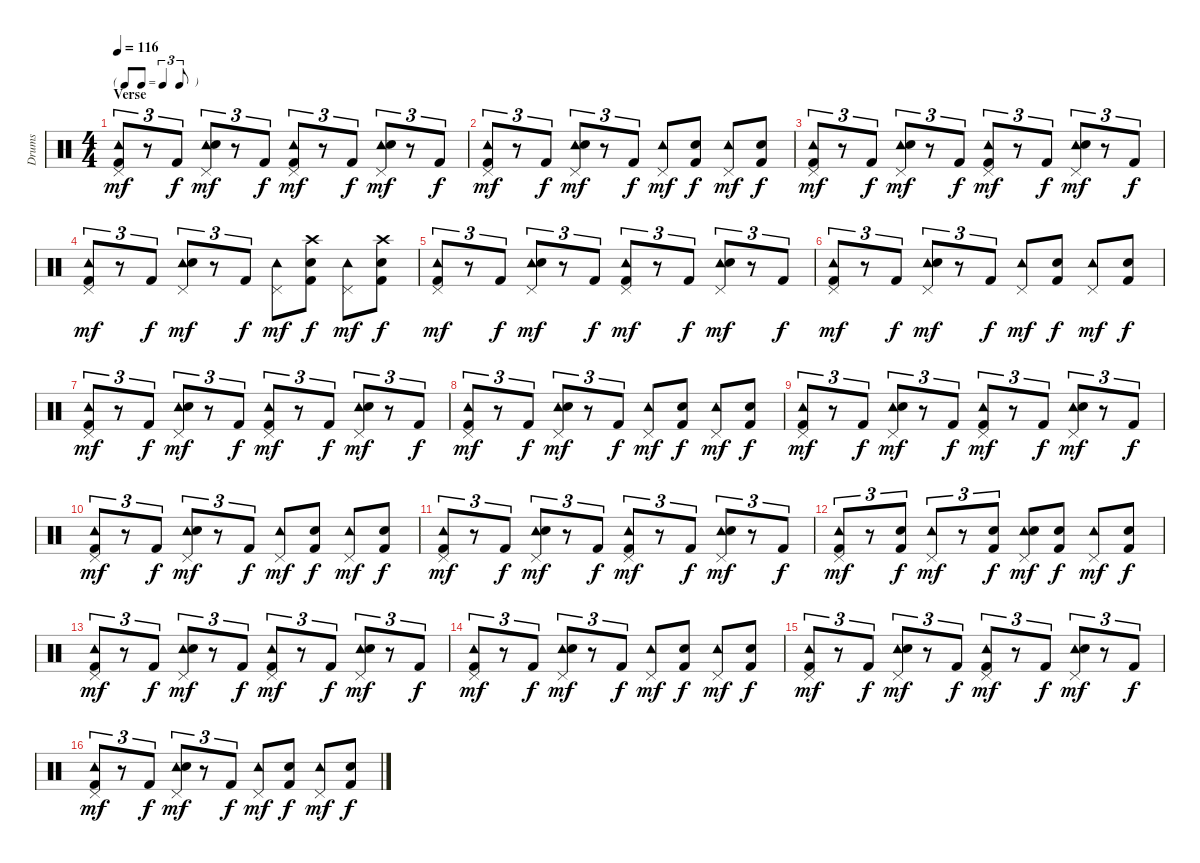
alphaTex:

\track ("Drums" "Drums") {instrument percussion}
\staff {score}
\articulation defaults
\ts (4 4)
\tf triplet8th
\section ("" "Verse")
\tempo 116
\clef neutral
\ks c
("Tambourine (hit)" "Pedal Hi-Hat (hit)" "Kick (hit) 2").8{tu (3 2) dy mf} r.8{tu (3 2)} "Kick (hit) 2".8{tu (3 2) dy f} ("Tambourine (hit)" "Pedal Hi-Hat (hit)" "Snare (hit) 2").8{tu (3 2) dy mf} r.8{tu (3 2)} "Kick (hit) 2".8{tu (3 2) dy f} ("Tambourine (hit)" "Pedal Hi-Hat (hit)" "Kick (hit) 2").8{tu (3 2) dy mf} r.8{tu (3 2)} "Kick (hit) 2".8{tu (3 2) dy f} ("Tambourine (hit)" "Pedal Hi-Hat (hit)" "Snare (hit) 2").8{tu (3 2) dy mf} r.8{tu (3 2)} "Kick (hit) 2".8{tu (3 2) dy f} |
("Tambourine (hit)" "Pedal Hi-Hat (hit)" "Kick (hit) 2").8{tu (3 2) dy mf} r.8{tu (3 2)} "Kick (hit) 2".8{tu (3 2) dy f} ("Tambourine (hit)" "Pedal Hi-Hat (hit)" "Snare (hit) 2").8{tu (3 2) dy mf} r.8{tu (3 2)} "Kick (hit) 2".8{tu (3 2) dy f} ("Tambourine (hit)" "Pedal Hi-Hat (hit)").8{dy mf} ("Snare (hit) 2" "Kick (hit) 2").8{dy f} ("Tambourine (hit)" "Pedal Hi-Hat (hit)").8{dy mf} ("Snare (hit) 2" "Kick (hit) 2").8{dy f} |
("Tambourine (hit)" "Pedal Hi-Hat (hit)" "Kick (hit) 2").8{tu (3 2) dy mf} r.8{tu (3 2)} "Kick (hit) 2".8{tu (3 2) dy f} ("Tambourine (hit)" "Pedal Hi-Hat (hit)" "Snare (hit) 2").8{tu (3 2) dy mf} r.8{tu (3 2)} "Kick (hit) 2".8{tu (3 2) dy f} ("Tambourine (hit)" "Pedal Hi-Hat (hit)" "Kick (hit) 2").8{tu (3 2) dy mf} r.8{tu (3 2)} "Kick (hit) 2".8{tu (3 2) dy f} ("Tambourine (hit)" "Pedal Hi-Hat (hit)" "Snare (hit) 2").8{tu (3 2) dy mf} r.8{tu (3 2)} "Kick (hit) 2".8{tu (3 2) dy f} |
("Tambourine (hit)" "Pedal Hi-Hat (hit)" "Kick (hit) 2").8{tu (3 2) dy mf} r.8{tu (3 2)} "Kick (hit) 2".8{tu (3 2) dy f} ("Tambourine (hit)" "Pedal Hi-Hat (hit)" "Snare (hit) 2").8{tu (3 2) dy mf} r.8{tu (3 2)} "Kick (hit) 2".8{tu (3 2) dy f} ("Tambourine (hit)" "Pedal Hi-Hat (hit)").8{dy mf} ("Crash high (hit)" "Snare (hit) 2" "Kick (hit) 2").8{dy f} ("Tambourine (hit)" "Pedal Hi-Hat (hit)").8{dy mf} ("Crash high (hit)" "Snare (hit) 2" "Kick (hit) 2").8{dy f} |
("Tambourine (hit)" "Pedal Hi-Hat (hit)" "Kick (hit) 2").8{tu (3 2) dy mf} r.8{tu (3 2)} "Kick (hit) 2".8{tu (3 2) dy f} ("Tambourine (hit)" "Pedal Hi-Hat (hit)" "Snare (hit) 2").8{tu (3 2) dy mf} r.8{tu (3 2)} "Kick (hit) 2".8{tu (3 2) dy f} ("Tambourine (hit)" "Pedal Hi-Hat (hit)" "Kick (hit) 2").8{tu (3 2) dy mf} r.8{tu (3 2)} "Kick (hit) 2".8{tu (3 2) dy f} ("Tambourine (hit)" "Pedal Hi-Hat (hit)" "Snare (hit) 2").8{tu (3 2) dy mf} r.8{tu (3 2)} "Kick (hit) 2".8{tu (3 2) dy f} |
("Tambourine (hit)" "Pedal Hi-Hat (hit)" "Kick (hit) 2").8{tu (3 2) dy mf} r.8{tu (3 2)} "Kick (hit) 2".8{tu (3 2) dy f} ("Tambourine (hit)" "Pedal Hi-Hat (hit)" "Snare (hit) 2").8{tu (3 2) dy mf} r.8{tu (3 2)} "Kick (hit) 2".8{tu (3 2) dy f} ("Tambourine (hit)" "Pedal Hi-Hat (hit)").8{dy mf} ("Snare (hit) 2" "Kick (hit) 2").8{dy f} ("Tambourine (hit)" "Pedal Hi-Hat (hit)").8{dy mf} ("Snare (hit) 2" "Kick (hit) 2").8{dy f} |
("Tambourine (hit)" "Pedal Hi-Hat (hit)" "Kick (hit) 2").8{tu (3 2) dy mf} r.8{tu (3 2)} "Kick (hit) 2".8{tu (3 2) dy f} ("Tambourine (hit)" "Pedal Hi-Hat (hit)" "Snare (hit) 2").8{tu (3 2) dy mf} r.8{tu (3 2)} "Kick (hit) 2".8{tu (3 2) dy f} ("Tambourine (hit)" "Pedal Hi-Hat (hit)" "Kick (hit) 2").8{tu (3 2) dy mf} r.8{tu (3 2)} "Kick (hit) 2".8{tu (3 2) dy f} ("Tambourine (hit)" "Pedal Hi-Hat (hit)" "Snare (hit) 2").8{tu (3 2) dy mf} r.8{tu (3 2)} "Kick (hit) 2".8{tu (3 2) dy f} |
("Tambourine (hit)" "Pedal Hi-Hat (hit)" "Kick (hit) 2").8{tu (3 2) dy mf} r.8{tu (3 2)} "Kick (hit) 2".8{tu (3 2) dy f} ("Tambourine (hit)" "Pedal Hi-Hat (hit)" "Snare (hit) 2").8{tu (3 2) dy mf} r.8{tu (3 2)} "Kick (hit) 2".8{tu (3 2) dy f} ("Tambourine (hit)" "Pedal Hi-Hat (hit)").8{dy mf} ("Snare (hit) 2" "Kick (hit) 2").8{dy f} ("Tambourine (hit)" "Pedal Hi-Hat (hit)").8{dy mf} ("Snare (hit) 2" "Kick (hit) 2").8{dy f} |
("Tambourine (hit)" "Pedal Hi-Hat (hit)" "Kick (hit) 2").8{tu (3 2) dy mf} r.8{tu (3 2)} "Kick (hit) 2".8{tu (3 2) dy f} ("Tambourine (hit)" "Pedal Hi-Hat (hit)" "Snare (hit) 2").8{tu (3 2) dy mf} r.8{tu (3 2)} "Kick (hit) 2".8{tu (3 2) dy f} ("Tambourine (hit)" "Pedal Hi-Hat (hit)" "Kick (hit) 2").8{tu (3 2) dy mf} r.8{tu (3 2)} "Kick (hit) 2".8{tu (3 2) dy f} ("Tambourine (hit)" "Pedal Hi-Hat (hit)" "Snare (hit) 2").8{tu (3 2) dy mf} r.8{tu (3 2)} "Kick (hit) 2".8{tu (3 2) dy f} |
("Tambourine (hit)" "Pedal Hi-Hat (hit)" "Kick (hit) 2").8{tu (3 2) dy mf} r.8{tu (3 2)} "Kick (hit) 2".8{tu (3 2) dy f} ("Tambourine (hit)" "Pedal Hi-Hat (hit)" "Snare (hit) 2").8{tu (3 2) dy mf} r.8{tu (3 2)} "Kick (hit) 2".8{tu (3 2) dy f} ("Tambourine (hit)" "Pedal Hi-Hat (hit)").8{dy mf} ("Snare (hit) 2" "Kick (hit) 2").8{dy f} ("Tambourine (hit)" "Pedal Hi-Hat (hit)").8{dy mf} ("Snare (hit) 2" "Kick (hit) 2").8{dy f} |
("Tambourine (hit)" "Pedal Hi-Hat (hit)" "Kick (hit) 2").8{tu (3 2) dy mf} r.8{tu (3 2)} "Kick (hit) 2".8{tu (3 2) dy f} ("Tambourine (hit)" "Pedal Hi-Hat (hit)" "Snare (hit) 2").8{tu (3 2) dy mf} r.8{tu (3 2)} "Kick (hit) 2".8{tu (3 2) dy f} ("Tambourine (hit)" "Pedal Hi-Hat (hit)" "Kick (hit) 2").8{tu (3 2) dy mf} r.8{tu (3 2)} "Kick (hit) 2".8{tu (3 2) dy f} ("Tambourine (hit)" "Pedal Hi-Hat (hit)" "Snare (hit) 2").8{tu (3 2) dy mf} r.8{tu (3 2)} "Kick (hit) 2".8{tu (3 2) dy f} |
("Tambourine (hit)" "Pedal Hi-Hat (hit)" "Kick (hit) 2").8{tu (3 2) dy mf} r.8{tu (3 2)} ("Snare (hit) 2" "Kick (hit) 2").8{tu (3 2) dy f} ("Tambourine (hit)" "Pedal Hi-Hat (hit)").8{tu (3 2) dy mf} r.8{tu (3 2)} ("Snare (hit) 2" "Kick (hit) 2").8{tu (3 2) dy f} ("Tambourine (hit)" "Pedal Hi-Hat (hit)" "Snare (hit) 2").8{dy mf} ("Snare (hit) 2" "Kick (hit) 2").8{dy f} ("Tambourine (hit)" "Pedal Hi-Hat (hit)").8{dy mf} ("Snare (hit) 2" "Kick (hit) 2").8{dy f} |
("Tambourine (hit)" "Pedal Hi-Hat (hit)" "Kick (hit) 2").8{tu (3 2) dy mf} r.8{tu (3 2)} "Kick (hit) 2".8{tu (3 2) dy f} ("Tambourine (hit)" "Pedal Hi-Hat (hit)" "Snare (hit) 2").8{tu (3 2) dy mf} r.8{tu (3 2)} "Kick (hit) 2".8{tu (3 2) dy f} ("Tambourine (hit)" "Pedal Hi-Hat (hit)" "Kick (hit) 2").8{tu (3 2) dy mf} r.8{tu (3 2)} "Kick (hit) 2".8{tu (3 2) dy f} ("Tambourine (hit)" "Pedal Hi-Hat (hit)" "Snare (hit) 2").8{tu (3 2) dy mf} r.8{tu (3 2)} "Kick (hit) 2".8{tu (3 2) dy f} |
("Tambourine (hit)" "Pedal Hi-Hat (hit)" "Kick (hit) 2").8{tu (3 2) dy mf} r.8{tu (3 2)} "Kick (hit) 2".8{tu (3 2) dy f} ("Tambourine (hit)" "Pedal Hi-Hat (hit)" "Snare (hit) 2").8{tu (3 2) dy mf} r.8{tu (3 2)} "Kick (hit) 2".8{tu (3 2) dy f} ("Tambourine (hit)" "Pedal Hi-Hat (hit)").8{dy mf} ("Snare (hit) 2" "Kick (hit) 2").8{dy f} ("Tambourine (hit)" "Pedal Hi-Hat (hit)").8{dy mf} ("Snare (hit) 2" "Kick (hit) 2").8{dy f} |
("Tambourine (hit)" "Pedal Hi-Hat (hit)" "Kick (hit) 2").8{tu (3 2) dy mf} r.8{tu (3 2)} "Kick (hit) 2".8{tu (3 2) dy f} ("Tambourine (hit)" "Pedal Hi-Hat (hit)" "Snare (hit) 2").8{tu (3 2) dy mf} r.8{tu (3 2)} "Kick (hit) 2".8{tu (3 2) dy f} ("Tambourine (hit)" "Pedal Hi-Hat (hit)" "Kick (hit) 2").8{tu (3 2) dy mf} r.8{tu (3 2)} "Kick (hit) 2".8{tu (3 2) dy f} ("Tambourine (hit)" "Pedal Hi-Hat (hit)" "Snare (hit) 2").8{tu (3 2) dy mf} r.8{tu (3 2)} "Kick (hit) 2".8{tu (3 2) dy f} |
("Tambourine (hit)" "Pedal Hi-Hat (hit)" "Kick (hit) 2").8{tu (3 2) dy mf} r.8{tu (3 2)} "Kick (hit) 2".8{tu (3 2) dy f} ("Tambourine (hit)" "Pedal Hi-Hat (hit)" "Snare (hit) 2").8{tu (3 2) dy mf} r.8{tu (3 2)} "Kick (hit) 2".8{tu (3 2) dy f} ("Tambourine (hit)" "Pedal Hi-Hat (hit)").8{dy mf} ("Snare (hit) 2" "Kick (hit) 2").8{dy f} ("Tambourine (hit)" "Pedal Hi-Hat (hit)").8{dy mf} ("Snare (hit) 2" "Kick (hit) 2").8{dy f}
